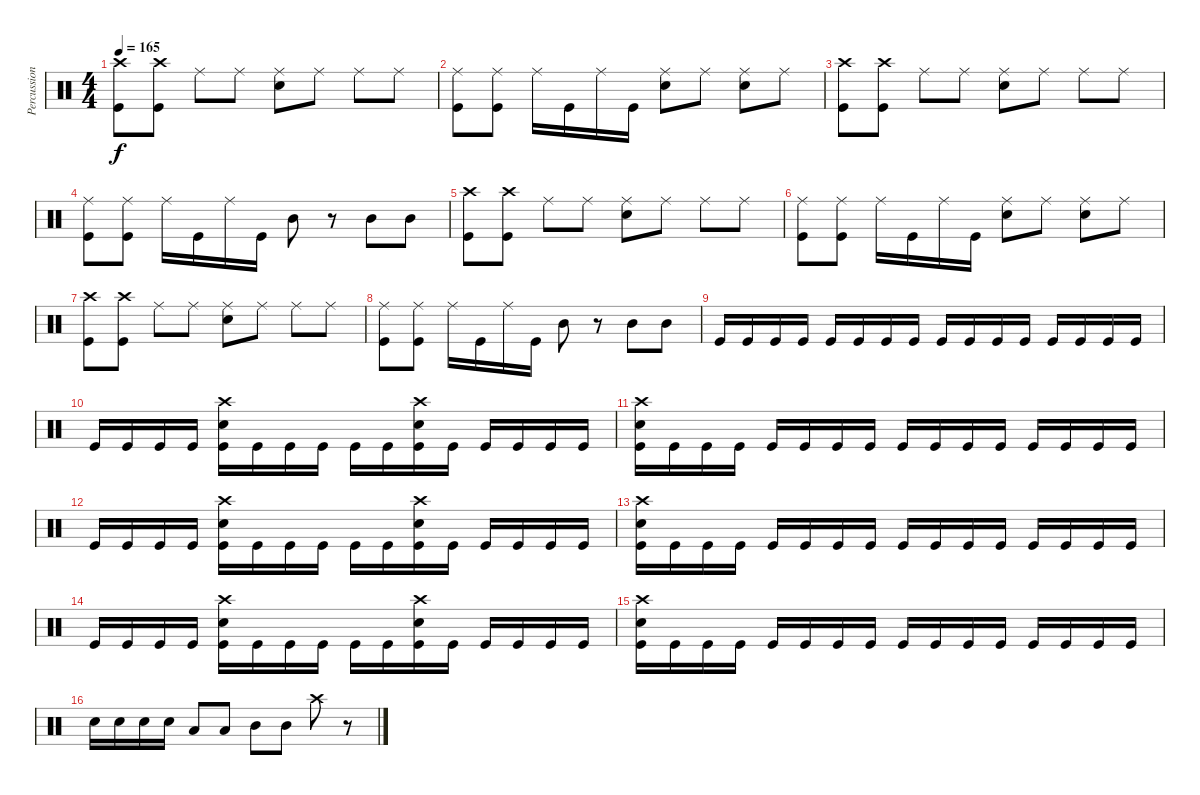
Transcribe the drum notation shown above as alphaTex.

\track ("Percussion" "Percussion") {instrument percussion}
\staff {score}
\articulation defaults
\ts (4 4)
\tempo 165
\clef neutral
\ks c
("Crash high (hit)" "Kick (hit)").8{dy f} ("Crash high (hit)" "Kick (hit)").8 "Ride (middle)".8 "Ride (middle)".8 ("Ride (middle)" "Snare (hit) 2").8 "Ride (middle)".8 "Ride (middle)".8 "Ride (middle)".8 |
("Ride (middle)" "Kick (hit)").8 ("Ride (middle)" "Kick (hit)").8 "Ride (middle)".16 "Kick (hit)".16 "Ride (middle)".16 "Kick (hit)".16 ("Ride (middle)" "Snare (hit) 2").8 "Ride (middle)".8 ("Ride (middle)" "Snare (hit) 2").8 "Ride (middle)".8 |
("Crash high (hit)" "Kick (hit)").8 ("Crash high (hit)" "Kick (hit)").8 "Ride (middle)".8 "Ride (middle)".8 ("Ride (middle)" "Snare (hit) 2").8 "Ride (middle)".8 "Ride (middle)".8 "Ride (middle)".8 |
("Ride (middle)" "Kick (hit)").8 ("Ride (middle)" "Kick (hit)").8 "Ride (middle)".16 "Kick (hit)".16 "Ride (middle)".16 "Kick (hit)".16 "Mid Tom (hit)".8 r.8 "Mid Tom (hit)".8 "Mid Tom (hit)".8 |
("Crash high (hit)" "Kick (hit)").8 ("Crash high (hit)" "Kick (hit)").8 "Ride (middle)".8 "Ride (middle)".8 ("Ride (middle)" "Snare (hit) 2").8 "Ride (middle)".8 "Ride (middle)".8 "Ride (middle)".8 |
("Ride (middle)" "Kick (hit)").8 ("Ride (middle)" "Kick (hit)").8 "Ride (middle)".16 "Kick (hit)".16 "Ride (middle)".16 "Kick (hit)".16 ("Ride (middle)" "Snare (hit) 2").8 "Ride (middle)".8 ("Ride (middle)" "Snare (hit) 2").8 "Ride (middle)".8 |
("Crash high (hit)" "Kick (hit)").8 ("Crash high (hit)" "Kick (hit)").8 "Ride (middle)".8 "Ride (middle)".8 ("Ride (middle)" "Snare (hit) 2").8 "Ride (middle)".8 "Ride (middle)".8 "Ride (middle)".8 |
("Ride (middle)" "Kick (hit)").8 ("Ride (middle)" "Kick (hit)").8 "Ride (middle)".16 "Kick (hit)".16 "Ride (middle)".16 "Kick (hit)".16 "Mid Tom (hit)".8 r.8 "Mid Tom (hit)".8 "Mid Tom (hit)".8 |
"Kick (hit)".16 "Kick (hit)".16 "Kick (hit)".16 "Kick (hit)".16 "Kick (hit)".16 "Kick (hit)".16 "Kick (hit)".16 "Kick (hit)".16 "Kick (hit)".16 "Kick (hit)".16 "Kick (hit)".16 "Kick (hit)".16 "Kick (hit)".16 "Kick (hit)".16 "Kick (hit)".16 "Kick (hit)".16 |
"Kick (hit)".16 "Kick (hit)".16 "Kick (hit)".16 "Kick (hit)".16 ("Crash high (hit)" "Snare (hit) 2" "Kick (hit)").16 "Kick (hit)".16 "Kick (hit)".16 "Kick (hit)".16 "Kick (hit)".16 "Kick (hit)".16 ("Crash high (hit)" "Snare (hit) 2" "Kick (hit)").16 "Kick (hit)".16 "Kick (hit)".16 "Kick (hit)".16 "Kick (hit)".16 "Kick (hit)".16 |
("Crash high (hit)" "Snare (hit) 2" "Kick (hit)").16 "Kick (hit)".16 "Kick (hit)".16 "Kick (hit)".16 "Kick (hit)".16 "Kick (hit)".16 "Kick (hit)".16 "Kick (hit)".16 "Kick (hit)".16 "Kick (hit)".16 "Kick (hit)".16 "Kick (hit)".16 "Kick (hit)".16 "Kick (hit)".16 "Kick (hit)".16 "Kick (hit)".16 |
"Kick (hit)".16 "Kick (hit)".16 "Kick (hit)".16 "Kick (hit)".16 ("Crash high (hit)" "Snare (hit) 2" "Kick (hit)").16 "Kick (hit)".16 "Kick (hit)".16 "Kick (hit)".16 "Kick (hit)".16 "Kick (hit)".16 ("Crash high (hit)" "Snare (hit) 2" "Kick (hit)").16 "Kick (hit)".16 "Kick (hit)".16 "Kick (hit)".16 "Kick (hit)".16 "Kick (hit)".16 |
("Crash high (hit)" "Snare (hit) 2" "Kick (hit)").16 "Kick (hit)".16 "Kick (hit)".16 "Kick (hit)".16 "Kick (hit)".16 "Kick (hit)".16 "Kick (hit)".16 "Kick (hit)".16 "Kick (hit)".16 "Kick (hit)".16 "Kick (hit)".16 "Kick (hit)".16 "Kick (hit)".16 "Kick (hit)".16 "Kick (hit)".16 "Kick (hit)".16 |
"Kick (hit)".16 "Kick (hit)".16 "Kick (hit)".16 "Kick (hit)".16 ("Crash high (hit)" "Snare (hit) 2" "Kick (hit)").16 "Kick (hit)".16 "Kick (hit)".16 "Kick (hit)".16 "Kick (hit)".16 "Kick (hit)".16 ("Crash high (hit)" "Snare (hit) 2" "Kick (hit)").16 "Kick (hit)".16 "Kick (hit)".16 "Kick (hit)".16 "Kick (hit)".16 "Kick (hit)".16 |
("Crash high (hit)" "Snare (hit) 2" "Kick (hit)").16 "Kick (hit)".16 "Kick (hit)".16 "Kick (hit)".16 "Kick (hit)".16 "Kick (hit)".16 "Kick (hit)".16 "Kick (hit)".16 "Kick (hit)".16 "Kick (hit)".16 "Kick (hit)".16 "Kick (hit)".16 "Kick (hit)".16 "Kick (hit)".16 "Kick (hit)".16 "Kick (hit)".16 |
"Snare (hit) 2".16 "Snare (hit) 2".16 "Snare (hit) 2".16 "Snare (hit) 2".16 "Low Tom (hit)".8 "Low Tom (hit)".8 "Mid Tom (hit)".8 "Mid Tom (hit)".8 "Crash high (hit)".8 r.8
